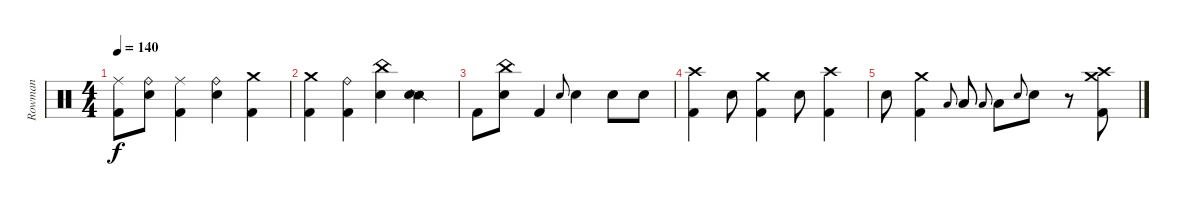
\track ("Rowman" "Rowman") {instrument percussion}
\staff {score}
\articulation defaults
\ts (4 4)
\tempo 140
\clef neutral
\ks c
("Ride (middle)" "Kick (hit) 2").8{dy f} ("Ride (bell)" "Snare (hit) 2").8 ("Ride (middle)" "Kick (hit) 2").4 ("Ride (bell)" "Snare (hit) 2").4 ("Crash medium (hit)" "Kick (hit) 2").4 |
("Crash medium (hit)" "Kick (hit) 2").4 ("Ride (bell)" "Kick (hit) 2").4 ("China (hit)" "Snare (hit) 2").4 ("Snare (side stick) 2" "Snare (hit) 2").4 |
"Kick (hit) 2".8 ("China (hit)" "Snare (hit) 2").8 "Kick (hit) 2".4 "Snare (hit) 2".8{gr onbeat} "Snare (hit) 2".4 "Snare (hit) 2".8 "Snare (hit) 2".8 |
("Crash high (hit)" "Kick (hit) 2").4 "Snare (hit) 2".8 ("Crash medium (hit)" "Kick (hit) 2").4 "Snare (hit) 2".8 ("Crash high (hit)" "Kick (hit) 2").4 |
"Snare (hit) 2".8 ("Crash medium (hit)" "Kick (hit) 2").4 "Low Floor Tom (hit)".8{gr onbeat} "Low Floor Tom (hit)".8 "Low Tom (hit)".8{gr onbeat} "Low Tom (hit)".8 "Snare (hit) 2".8{gr onbeat} "Snare (hit) 2".8 r.8 ("Crash medium (hit)" "Crash high (hit)" "Kick (hit) 2").8
